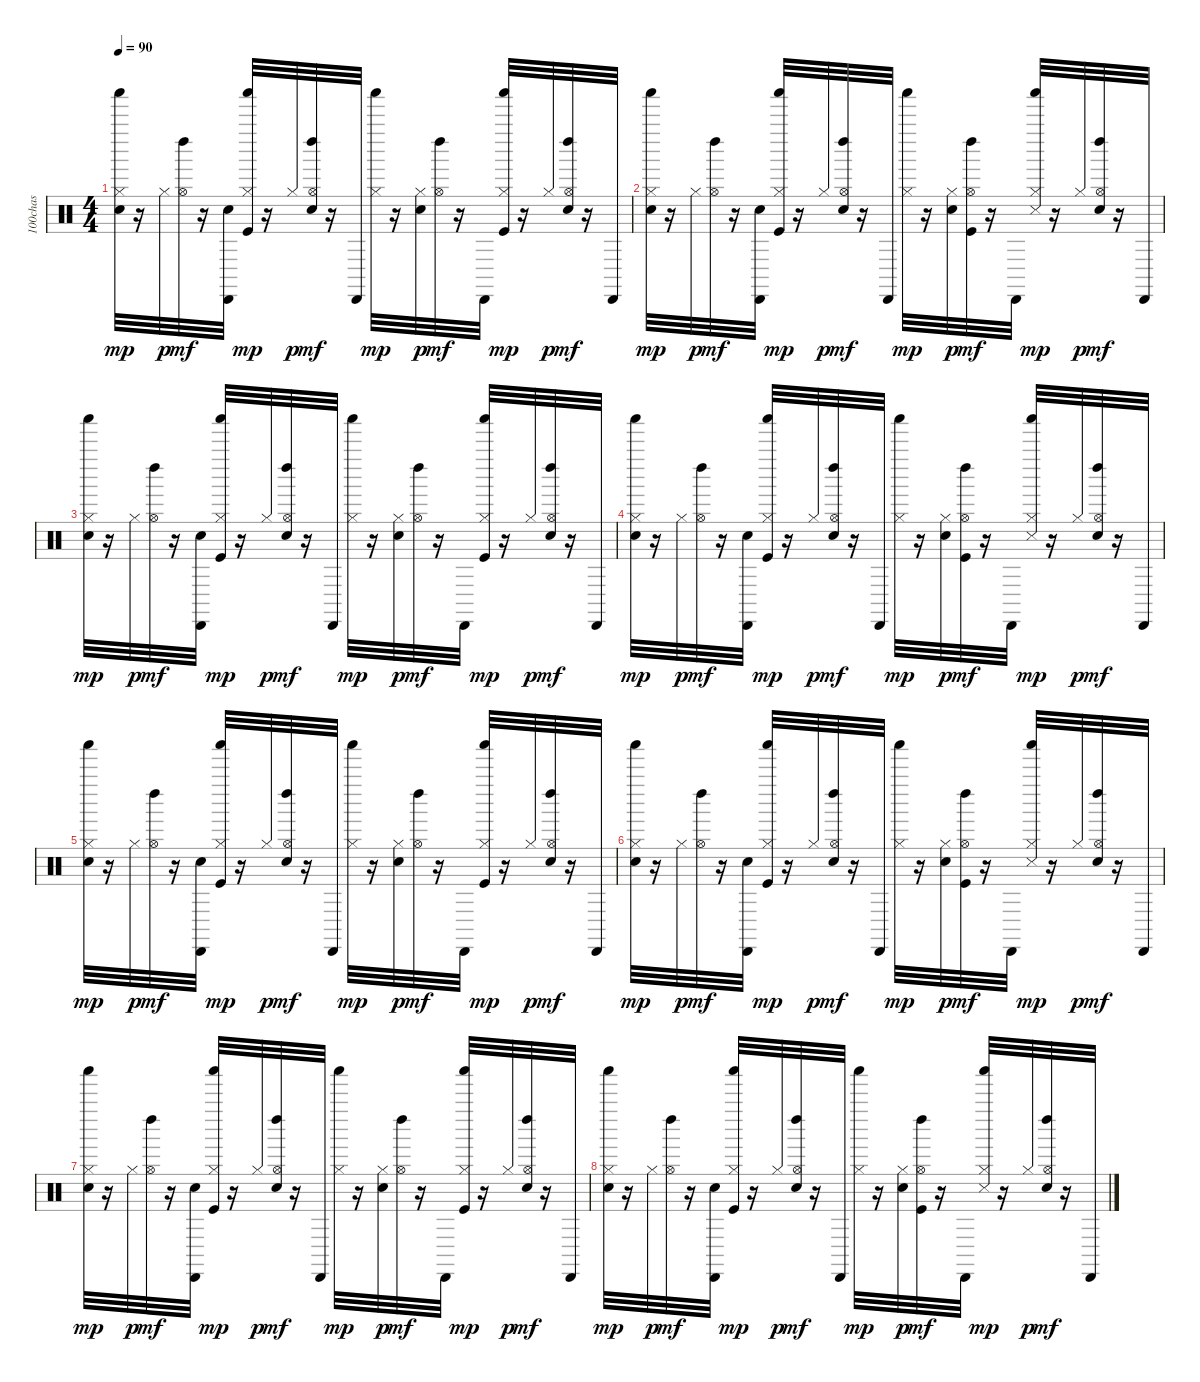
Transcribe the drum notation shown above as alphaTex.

\track ("100chas" "100chas") {instrument percussion}
\staff {score}
\articulation defaults
\ts (4 4)
\tempo 90
\clef neutral
\ks c
("Hand Clap (hit)" "Hi-Hat (closed)" "Shaker (hit)").32{dy mp} r.16 "Hi-Hat (closed)".32{dy p} ("Hi-Hat (open)" "Left Maraca (hit)").32{dy mf} r.16 ("Hand Clap (hit)" "Cabasa (hit)").32 ("Kick (hit)" "Hi-Hat (closed)" "Shaker (hit)").32{dy mp} r.16 "Hi-Hat (closed)".32{dy p} ("Hand Clap (hit)" "Hi-Hat (open)" "Left Maraca (hit)").32{dy mf} r.16 "Cabasa (hit)".32 ("Hi-Hat (closed)" "Shaker (hit)").32{dy mp} r.16 ("Hand Clap (hit)" "Hi-Hat (closed)").32{dy p} ("Hi-Hat (open)" "Left Maraca (hit)").32{dy mf} r.16 "Cabasa (hit)".32 ("Kick (hit)" "Hi-Hat (closed)" "Shaker (hit)").32{dy mp} r.16 "Hi-Hat (closed)".32{dy p} ("Hand Clap (hit)" "Hi-Hat (open)" "Left Maraca (hit)").32{dy mf} r.16 "Cabasa (hit)".32 |
("Hand Clap (hit)" "Hi-Hat (closed)" "Shaker (hit)").32{dy mp} r.16 "Hi-Hat (closed)".32{dy p} ("Hi-Hat (open)" "Left Maraca (hit)").32{dy mf} r.16 ("Hand Clap (hit)" "Cabasa (hit)").32 ("Kick (hit)" "Hi-Hat (closed)" "Shaker (hit)").32{dy mp} r.16 "Hi-Hat (closed)".32{dy p} ("Hand Clap (hit)" "Hi-Hat (open)" "Left Maraca (hit)").32{dy mf} r.16 "Cabasa (hit)".32 ("Hi-Hat (closed)" "Shaker (hit)").32{dy mp} r.16 ("Hand Clap (hit)" "Hi-Hat (closed)").32{dy p} ("Kick (hit)" "Hi-Hat (open)" "Left Maraca (hit)").32{dy mf} r.16 "Cabasa (hit)".32 ("Snare (side stick) 3" "Hi-Hat (closed)" "Shaker (hit)").32{dy mp} r.16 "Hi-Hat (closed)".32{dy p} ("Hand Clap (hit)" "Hi-Hat (open)" "Left Maraca (hit)").32{dy mf} r.16 "Cabasa (hit)".32 |
("Hand Clap (hit)" "Hi-Hat (closed)" "Shaker (hit)").32{dy mp} r.16 "Hi-Hat (closed)".32{dy p} ("Hi-Hat (open)" "Left Maraca (hit)").32{dy mf} r.16 ("Hand Clap (hit)" "Cabasa (hit)").32 ("Kick (hit)" "Hi-Hat (closed)" "Shaker (hit)").32{dy mp} r.16 "Hi-Hat (closed)".32{dy p} ("Hand Clap (hit)" "Hi-Hat (open)" "Left Maraca (hit)").32{dy mf} r.16 "Cabasa (hit)".32 ("Hi-Hat (closed)" "Shaker (hit)").32{dy mp} r.16 ("Hand Clap (hit)" "Hi-Hat (closed)").32{dy p} ("Hi-Hat (open)" "Left Maraca (hit)").32{dy mf} r.16 "Cabasa (hit)".32 ("Kick (hit)" "Hi-Hat (closed)" "Shaker (hit)").32{dy mp} r.16 "Hi-Hat (closed)".32{dy p} ("Hand Clap (hit)" "Hi-Hat (open)" "Left Maraca (hit)").32{dy mf} r.16 "Cabasa (hit)".32 |
("Hand Clap (hit)" "Hi-Hat (closed)" "Shaker (hit)").32{dy mp} r.16 "Hi-Hat (closed)".32{dy p} ("Hi-Hat (open)" "Left Maraca (hit)").32{dy mf} r.16 ("Hand Clap (hit)" "Cabasa (hit)").32 ("Kick (hit)" "Hi-Hat (closed)" "Shaker (hit)").32{dy mp} r.16 "Hi-Hat (closed)".32{dy p} ("Hand Clap (hit)" "Hi-Hat (open)" "Left Maraca (hit)").32{dy mf} r.16 "Cabasa (hit)".32 ("Hi-Hat (closed)" "Shaker (hit)").32{dy mp} r.16 ("Hand Clap (hit)" "Hi-Hat (closed)").32{dy p} ("Kick (hit)" "Hi-Hat (open)" "Left Maraca (hit)").32{dy mf} r.16 "Cabasa (hit)".32 ("Snare (side stick) 3" "Hi-Hat (closed)" "Shaker (hit)").32{dy mp} r.16 "Hi-Hat (closed)".32{dy p} ("Hand Clap (hit)" "Hi-Hat (open)" "Left Maraca (hit)").32{dy mf} r.16 "Cabasa (hit)".32 |
("Hand Clap (hit)" "Hi-Hat (closed)" "Shaker (hit)").32{dy mp} r.16 "Hi-Hat (closed)".32{dy p} ("Hi-Hat (open)" "Left Maraca (hit)").32{dy mf} r.16 ("Hand Clap (hit)" "Cabasa (hit)").32 ("Kick (hit)" "Hi-Hat (closed)" "Shaker (hit)").32{dy mp} r.16 "Hi-Hat (closed)".32{dy p} ("Hand Clap (hit)" "Hi-Hat (open)" "Left Maraca (hit)").32{dy mf} r.16 "Cabasa (hit)".32 ("Hi-Hat (closed)" "Shaker (hit)").32{dy mp} r.16 ("Hand Clap (hit)" "Hi-Hat (closed)").32{dy p} ("Hi-Hat (open)" "Left Maraca (hit)").32{dy mf} r.16 "Cabasa (hit)".32 ("Kick (hit)" "Hi-Hat (closed)" "Shaker (hit)").32{dy mp} r.16 "Hi-Hat (closed)".32{dy p} ("Hand Clap (hit)" "Hi-Hat (open)" "Left Maraca (hit)").32{dy mf} r.16 "Cabasa (hit)".32 |
("Hand Clap (hit)" "Hi-Hat (closed)" "Shaker (hit)").32{dy mp} r.16 "Hi-Hat (closed)".32{dy p} ("Hi-Hat (open)" "Left Maraca (hit)").32{dy mf} r.16 ("Hand Clap (hit)" "Cabasa (hit)").32 ("Kick (hit)" "Hi-Hat (closed)" "Shaker (hit)").32{dy mp} r.16 "Hi-Hat (closed)".32{dy p} ("Hand Clap (hit)" "Hi-Hat (open)" "Left Maraca (hit)").32{dy mf} r.16 "Cabasa (hit)".32 ("Hi-Hat (closed)" "Shaker (hit)").32{dy mp} r.16 ("Hand Clap (hit)" "Hi-Hat (closed)").32{dy p} ("Kick (hit)" "Hi-Hat (open)" "Left Maraca (hit)").32{dy mf} r.16 "Cabasa (hit)".32 ("Snare (side stick) 3" "Hi-Hat (closed)" "Shaker (hit)").32{dy mp} r.16 "Hi-Hat (closed)".32{dy p} ("Hand Clap (hit)" "Hi-Hat (open)" "Left Maraca (hit)").32{dy mf} r.16 "Cabasa (hit)".32 |
("Hand Clap (hit)" "Hi-Hat (closed)" "Shaker (hit)").32{dy mp} r.16 "Hi-Hat (closed)".32{dy p} ("Hi-Hat (open)" "Left Maraca (hit)").32{dy mf} r.16 ("Hand Clap (hit)" "Cabasa (hit)").32 ("Kick (hit)" "Hi-Hat (closed)" "Shaker (hit)").32{dy mp} r.16 "Hi-Hat (closed)".32{dy p} ("Hand Clap (hit)" "Hi-Hat (open)" "Left Maraca (hit)").32{dy mf} r.16 "Cabasa (hit)".32 ("Hi-Hat (closed)" "Shaker (hit)").32{dy mp} r.16 ("Hand Clap (hit)" "Hi-Hat (closed)").32{dy p} ("Hi-Hat (open)" "Left Maraca (hit)").32{dy mf} r.16 "Cabasa (hit)".32 ("Kick (hit)" "Hi-Hat (closed)" "Shaker (hit)").32{dy mp} r.16 "Hi-Hat (closed)".32{dy p} ("Hand Clap (hit)" "Hi-Hat (open)" "Left Maraca (hit)").32{dy mf} r.16 "Cabasa (hit)".32 |
("Hand Clap (hit)" "Hi-Hat (closed)" "Shaker (hit)").32{dy mp} r.16 "Hi-Hat (closed)".32{dy p} ("Hi-Hat (open)" "Left Maraca (hit)").32{dy mf} r.16 ("Hand Clap (hit)" "Cabasa (hit)").32 ("Kick (hit)" "Hi-Hat (closed)" "Shaker (hit)").32{dy mp} r.16 "Hi-Hat (closed)".32{dy p} ("Hand Clap (hit)" "Hi-Hat (open)" "Left Maraca (hit)").32{dy mf} r.16 "Cabasa (hit)".32 ("Hi-Hat (closed)" "Shaker (hit)").32{dy mp} r.16 ("Hand Clap (hit)" "Hi-Hat (closed)").32{dy p} ("Kick (hit)" "Hi-Hat (open)" "Left Maraca (hit)").32{dy mf} r.16 "Cabasa (hit)".32 ("Snare (side stick) 3" "Hi-Hat (closed)" "Shaker (hit)").32{dy mp} r.16 "Hi-Hat (closed)".32{dy p} ("Hand Clap (hit)" "Hi-Hat (open)" "Left Maraca (hit)").32{dy mf} r.16 "Cabasa (hit)".32
